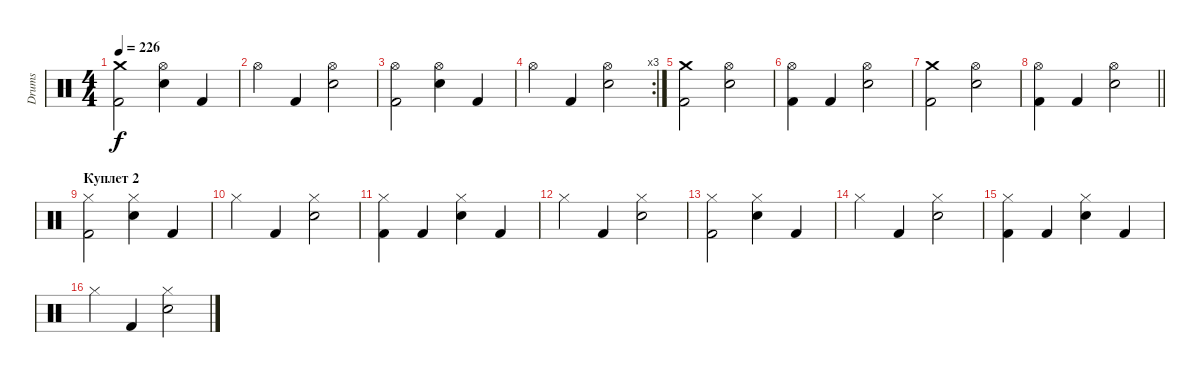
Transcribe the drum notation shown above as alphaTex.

\track ("Drums" "Drums") {instrument percussion}
\staff
\articulation defaults
\ts (4 4)
\tempo 226
\clef neutral
\ks c
("Crash medium (hit)" "Kick (hit) 2").2{dy f} ("Hi-Hat (open)" "Snare (hit) 2").4 "Kick (hit) 2".4 |
"Hi-Hat (open)".4 "Kick (hit) 2".4 ("Hi-Hat (open)" "Snare (hit) 2").2 |
("Hi-Hat (open)" "Kick (hit) 2").2 ("Hi-Hat (open)" "Snare (hit) 2").4 "Kick (hit) 2".4 |
\rc 3 "Hi-Hat (open)".4 "Kick (hit) 2".4
("Hi-Hat (open)" "Snare (hit) 2").2 |
("Crash medium (hit)" "Kick (hit) 2").2 ("Hi-Hat (open)" "Snare (hit) 2").2 |
("Hi-Hat (open)" "Kick (hit) 2").4 "Kick (hit) 2".4 ("Hi-Hat (open)" "Snare (hit) 2").2 |
("Crash medium (hit)" "Kick (hit) 2").2 ("Hi-Hat (open)" "Snare (hit) 2").2 |
\barLineRight lightlight
("Hi-Hat (open)" "Kick (hit) 2").4 "Kick (hit) 2".4 ("Hi-Hat (open)" "Snare (hit) 2").2 |
\section ("" "Куплет 2")
("Hi-Hat (closed)" "Kick (hit) 2").2 ("Hi-Hat (closed)" "Snare (hit) 2").4 "Kick (hit) 2".4 |
"Hi-Hat (closed)".4 "Kick (hit) 2".4 ("Hi-Hat (closed)" "Snare (hit) 2").2 |
("Hi-Hat (closed)" "Kick (hit) 2").4 "Kick (hit) 2".4 ("Hi-Hat (closed)" "Snare (hit) 2").4 "Kick (hit) 2".4 |
"Hi-Hat (closed)".4 "Kick (hit) 2".4 ("Hi-Hat (closed)" "Snare (hit) 2").2 |
("Hi-Hat (closed)" "Kick (hit) 2").2 ("Hi-Hat (closed)" "Snare (hit) 2").4 "Kick (hit) 2".4 |
"Hi-Hat (closed)".4 "Kick (hit) 2".4 ("Hi-Hat (closed)" "Snare (hit) 2").2 |
("Hi-Hat (closed)" "Kick (hit) 2").4 "Kick (hit) 2".4 ("Hi-Hat (closed)" "Snare (hit) 2").4 "Kick (hit) 2".4 |
"Hi-Hat (closed)".4 "Kick (hit) 2".4 ("Hi-Hat (closed)" "Snare (hit) 2").2
